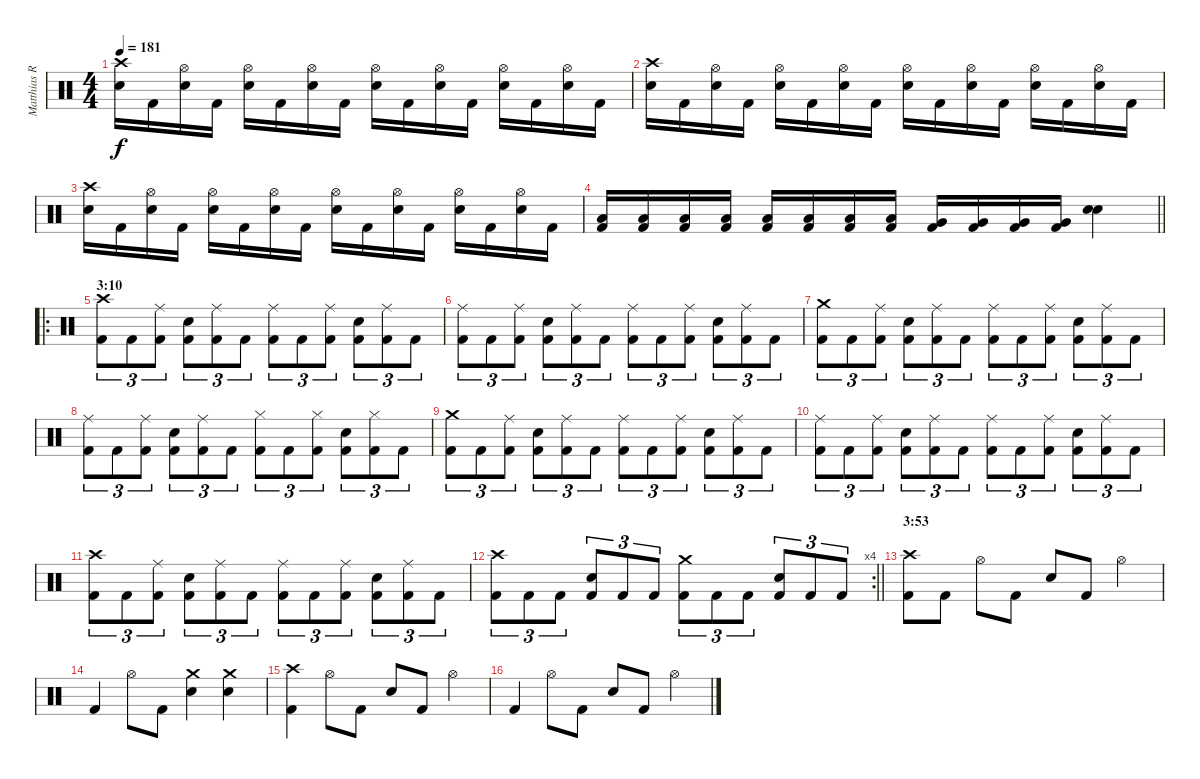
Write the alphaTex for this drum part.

\track ("Matthias R." "Matthias R") {instrument percussion}
\staff {score}
\articulation defaults
\ts (4 4)
\tempo 181
\clef neutral
\ks c
("Snare (hit) 2" "Crash high (hit)").16{dy f} "Kick (hit) 2".16 ("Snare (hit) 2" "Hi-Hat (open)").16 "Kick (hit) 2".16 ("Snare (hit) 2" "Hi-Hat (open)").16 "Kick (hit) 2".16 ("Snare (hit) 2" "Hi-Hat (open)").16 "Kick (hit) 2".16 ("Snare (hit) 2" "Hi-Hat (open)").16 "Kick (hit) 2".16 ("Snare (hit) 2" "Hi-Hat (open)").16 "Kick (hit) 2".16 ("Snare (hit) 2" "Hi-Hat (open)").16 "Kick (hit) 2".16 ("Snare (hit) 2" "Hi-Hat (open)").16 "Kick (hit) 2".16 |
("Snare (hit) 2" "Crash high (hit)").16 "Kick (hit) 2".16 ("Snare (hit) 2" "Hi-Hat (open)").16 "Kick (hit) 2".16 ("Snare (hit) 2" "Hi-Hat (open)").16 "Kick (hit) 2".16 ("Snare (hit) 2" "Hi-Hat (open)").16 "Kick (hit) 2".16 ("Snare (hit) 2" "Hi-Hat (open)").16 "Kick (hit) 2".16 ("Snare (hit) 2" "Hi-Hat (open)").16 "Kick (hit) 2".16 ("Snare (hit) 2" "Hi-Hat (open)").16 "Kick (hit) 2".16 ("Snare (hit) 2" "Hi-Hat (open)").16 "Kick (hit) 2".16 |
("Snare (hit) 2" "Crash high (hit)").16 "Kick (hit) 2".16 ("Snare (hit) 2" "Hi-Hat (open)").16 "Kick (hit) 2".16 ("Snare (hit) 2" "Hi-Hat (open)").16 "Kick (hit) 2".16 ("Snare (hit) 2" "Hi-Hat (open)").16 "Kick (hit) 2".16 ("Snare (hit) 2" "Hi-Hat (open)").16 "Kick (hit) 2".16 ("Snare (hit) 2" "Hi-Hat (open)").16 "Kick (hit) 2".16 ("Snare (hit) 2" "Hi-Hat (open)").16 "Kick (hit) 2".16 ("Snare (hit) 2" "Hi-Hat (open)").16 "Kick (hit) 2".16 |
\barLineRight lightlight
("Kick (hit) 2" "Low Tom (hit)").16 ("Kick (hit) 2" "Low Tom (hit)").16 ("Kick (hit) 2" "Low Tom (hit)").16 ("Kick (hit) 2" "Low Tom (hit)").16 ("Kick (hit) 2" "Low Tom (hit)").16 ("Kick (hit) 2" "Low Tom (hit)").16 ("Kick (hit) 2" "Low Tom (hit)").16 ("Kick (hit) 2" "Low Tom (hit)").16 ("Kick (hit) 2" "Very Low Tom (hit)").16 ("Kick (hit) 2" "Very Low Tom (hit)").16 ("Kick (hit) 2" "Very Low Tom (hit)").16 ("Kick (hit) 2" "Very Low Tom (hit)").16 ("Snare (hit) 2" "Electric Snare (hit)").4{bd 60} |
\ro
\section ("" "3:10")
("Kick (hit) 2" "Crash high (hit)").8{tu (3 2)} "Kick (hit) 2".8{tu (3 2)} ("Kick (hit) 2" "Ride (middle)").8{tu (3 2)} ("Kick (hit) 2" "Snare (hit) 2").8{tu (3 2)} ("Kick (hit) 2" "Ride (middle)").8{tu (3 2)} "Kick (hit) 2".8{tu (3 2)} ("Kick (hit) 2" "Ride (middle)").8{tu (3 2)} "Kick (hit) 2".8{tu (3 2)} ("Kick (hit) 2" "Ride (middle)").8{tu (3 2)} ("Kick (hit) 2" "Snare (hit) 2").8{tu (3 2)} ("Kick (hit) 2" "Ride (middle)").8{tu (3 2)} "Kick (hit) 2".8{tu (3 2)} |
("Kick (hit) 2" "Ride (middle)").8{tu (3 2)} "Kick (hit) 2".8{tu (3 2)} ("Kick (hit) 2" "Ride (middle)").8{tu (3 2)} ("Kick (hit) 2" "Snare (hit) 2").8{tu (3 2)} ("Kick (hit) 2" "Ride (middle)").8{tu (3 2)} "Kick (hit) 2".8{tu (3 2)} ("Kick (hit) 2" "Ride (middle)").8{tu (3 2)} "Kick (hit) 2".8{tu (3 2)} ("Kick (hit) 2" "Ride (middle)").8{tu (3 2)} ("Kick (hit) 2" "Snare (hit) 2").8{tu (3 2)} ("Kick (hit) 2" "Ride (middle)").8{tu (3 2)} "Kick (hit) 2".8{tu (3 2)} |
("Kick (hit) 2" "Crash medium (hit)").8{tu (3 2)} "Kick (hit) 2".8{tu (3 2)} ("Kick (hit) 2" "Ride (middle)").8{tu (3 2)} ("Kick (hit) 2" "Snare (hit) 2").8{tu (3 2)} ("Kick (hit) 2" "Ride (middle)").8{tu (3 2)} "Kick (hit) 2".8{tu (3 2)} ("Kick (hit) 2" "Ride (middle)").8{tu (3 2)} "Kick (hit) 2".8{tu (3 2)} ("Kick (hit) 2" "Ride (middle)").8{tu (3 2)} ("Kick (hit) 2" "Snare (hit) 2").8{tu (3 2)} ("Kick (hit) 2" "Ride (middle)").8{tu (3 2)} "Kick (hit) 2".8{tu (3 2)} |
("Kick (hit) 2" "Ride (middle)").8{tu (3 2)} "Kick (hit) 2".8{tu (3 2)} ("Kick (hit) 2" "Ride (middle)").8{tu (3 2)} ("Kick (hit) 2" "Snare (hit) 2").8{tu (3 2)} ("Kick (hit) 2" "Ride (middle)").8{tu (3 2)} "Kick (hit) 2".8{tu (3 2)} ("Kick (hit) 2" "Hi-Hat (closed)").8{tu (3 2)} "Kick (hit) 2".8{tu (3 2)} ("Kick (hit) 2" "Hi-Hat (closed)").8{tu (3 2)} ("Kick (hit) 2" "Snare (hit) 2").8{tu (3 2)} ("Kick (hit) 2" "Hi-Hat (closed)").8{tu (3 2)} "Kick (hit) 2".8{tu (3 2)} |
("Kick (hit) 2" "Crash medium (hit)").8{tu (3 2)} "Kick (hit) 2".8{tu (3 2)} ("Kick (hit) 2" "Ride (middle)").8{tu (3 2)} ("Kick (hit) 2" "Snare (hit) 2").8{tu (3 2)} ("Kick (hit) 2" "Ride (middle)").8{tu (3 2)} "Kick (hit) 2".8{tu (3 2)} ("Kick (hit) 2" "Ride (middle)").8{tu (3 2)} "Kick (hit) 2".8{tu (3 2)} ("Kick (hit) 2" "Ride (middle)").8{tu (3 2)} ("Kick (hit) 2" "Snare (hit) 2").8{tu (3 2)} ("Kick (hit) 2" "Ride (middle)").8{tu (3 2)} "Kick (hit) 2".8{tu (3 2)} |
("Kick (hit) 2" "Ride (middle)").8{tu (3 2)} "Kick (hit) 2".8{tu (3 2)} ("Kick (hit) 2" "Ride (middle)").8{tu (3 2)} ("Kick (hit) 2" "Snare (hit) 2").8{tu (3 2)} ("Kick (hit) 2" "Ride (middle)").8{tu (3 2)} "Kick (hit) 2".8{tu (3 2)} ("Kick (hit) 2" "Ride (middle)").8{tu (3 2)} "Kick (hit) 2".8{tu (3 2)} ("Kick (hit) 2" "Ride (middle)").8{tu (3 2)} ("Kick (hit) 2" "Snare (hit) 2").8{tu (3 2)} ("Kick (hit) 2" "Ride (middle)").8{tu (3 2)} "Kick (hit) 2".8{tu (3 2)} |
("Kick (hit) 2" "Crash high (hit)").8{tu (3 2)} "Kick (hit) 2".8{tu (3 2)} ("Kick (hit) 2" "Ride (middle)").8{tu (3 2)} ("Kick (hit) 2" "Snare (hit) 2").8{tu (3 2)} ("Kick (hit) 2" "Ride (middle)").8{tu (3 2)} "Kick (hit) 2".8{tu (3 2)} ("Kick (hit) 2" "Ride (middle)").8{tu (3 2)} "Kick (hit) 2".8{tu (3 2)} ("Kick (hit) 2" "Ride (middle)").8{tu (3 2)} ("Kick (hit) 2" "Snare (hit) 2").8{tu (3 2)} ("Kick (hit) 2" "Ride (middle)").8{tu (3 2)} "Kick (hit) 2".8{tu (3 2)} |
\rc 4
\barLineRight lightlight
("Kick (hit) 2" "Crash high (hit)").8{tu (3 2)} "Kick (hit) 2".8{tu (3 2)} "Kick (hit) 2".8{tu (3 2)} ("Kick (hit) 2" "Snare (hit) 2").8{tu (3 2)} "Kick (hit) 2".8{tu (3 2)} "Kick (hit) 2".8{tu (3 2)} ("Kick (hit) 2" "Crash medium (hit)").8{tu (3 2)} "Kick (hit) 2".8{tu (3 2)} "Kick (hit) 2".8{tu (3 2)} ("Kick (hit) 2" "Snare (hit) 2").8{tu (3 2)} "Kick (hit) 2".8{tu (3 2)} "Kick (hit) 2".8{tu (3 2)} |
\section ("" "3:53")
("Kick (hit) 2" "Crash high (hit)").8{volume 14} "Kick (hit) 2".8 "Hi-Hat (open)".8 "Kick (hit) 2".8 "Snare (hit) 2".8 "Kick (hit) 2".8 "Hi-Hat (open)".4 |
"Kick (hit) 2".4 "Hi-Hat (open)".8 "Kick (hit) 2".8 ("Snare (hit) 2" "Crash medium (hit)").4 ("Snare (hit) 2" "Crash medium (hit)").4 |
("Kick (hit) 2" "Crash high (hit)").4 "Hi-Hat (open)".8 "Kick (hit) 2".8 "Snare (hit) 2".8 "Kick (hit) 2".8 "Hi-Hat (open)".4 |
"Kick (hit) 2".4 "Hi-Hat (open)".8 "Kick (hit) 2".8 "Snare (hit) 2".8 "Kick (hit) 2".8 "Hi-Hat (open)".4
